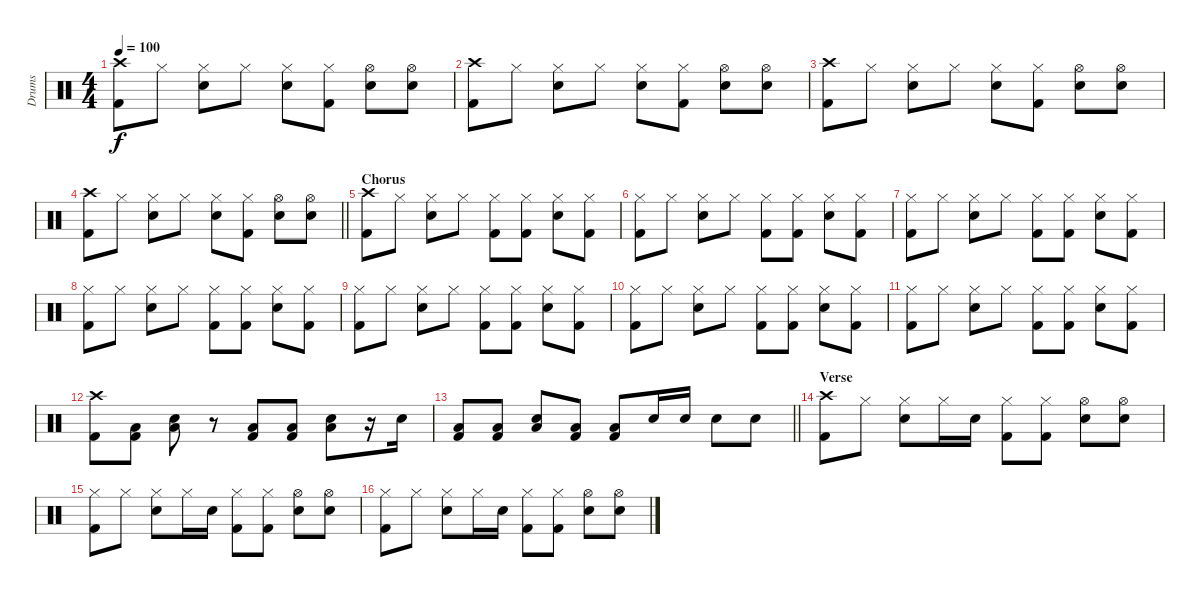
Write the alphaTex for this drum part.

\track ("Drums" "Drums") {instrument percussion}
\staff {score}
\articulation defaults
\ts (4 4)
\tempo 100
\clef neutral
\ks c
("Crash high (hit)" "Kick (hit) 2").8{dy f} "Hi-Hat (closed)".8 ("Hi-Hat (closed)" "Electric Snare (hit)").8 "Hi-Hat (closed)".8 ("Hi-Hat (closed)" "Electric Snare (hit)").8 ("Hi-Hat (closed)" "Kick (hit) 2").8 ("Hi-Hat (open)" "Electric Snare (hit)").8 ("Hi-Hat (open)" "Electric Snare (hit)").8 |
("Crash high (hit)" "Kick (hit) 2").8 "Hi-Hat (closed)".8 ("Hi-Hat (closed)" "Electric Snare (hit)").8 "Hi-Hat (closed)".8 ("Hi-Hat (closed)" "Electric Snare (hit)").8 ("Hi-Hat (closed)" "Kick (hit) 2").8 ("Hi-Hat (open)" "Electric Snare (hit)").8 ("Hi-Hat (open)" "Electric Snare (hit)").8 |
("Crash high (hit)" "Kick (hit) 2").8 "Hi-Hat (closed)".8 ("Hi-Hat (closed)" "Electric Snare (hit)").8 "Hi-Hat (closed)".8 ("Hi-Hat (closed)" "Electric Snare (hit)").8 ("Hi-Hat (closed)" "Kick (hit) 2").8 ("Hi-Hat (open)" "Electric Snare (hit)").8 ("Hi-Hat (open)" "Electric Snare (hit)").8 |
\barLineRight lightlight
("Crash high (hit)" "Kick (hit) 2").8 "Hi-Hat (closed)".8 ("Hi-Hat (closed)" "Electric Snare (hit)").8 "Hi-Hat (closed)".8 ("Hi-Hat (closed)" "Electric Snare (hit)").8 ("Hi-Hat (closed)" "Kick (hit) 2").8 ("Hi-Hat (open)" "Electric Snare (hit)").8 ("Hi-Hat (open)" "Electric Snare (hit)").8 |
\section ("" "Chorus")
("Crash high (hit)" "Kick (hit) 2").8 "Hi-Hat (closed)".8 ("Hi-Hat (closed)" "Electric Snare (hit)").8 "Hi-Hat (closed)".8 ("Hi-Hat (closed)" "Kick (hit) 2").8 ("Hi-Hat (closed)" "Kick (hit) 2").8 ("Hi-Hat (closed)" "Electric Snare (hit)").8 ("Hi-Hat (closed)" "Kick (hit) 2").8 |
("Hi-Hat (closed)" "Kick (hit) 2").8 "Hi-Hat (closed)".8 ("Hi-Hat (closed)" "Electric Snare (hit)").8 "Hi-Hat (closed)".8 ("Hi-Hat (closed)" "Kick (hit) 2").8 ("Hi-Hat (closed)" "Kick (hit) 2").8 ("Hi-Hat (closed)" "Electric Snare (hit)").8 ("Hi-Hat (closed)" "Kick (hit) 2").8 |
("Hi-Hat (closed)" "Kick (hit) 2").8 "Hi-Hat (closed)".8 ("Hi-Hat (closed)" "Electric Snare (hit)").8 "Hi-Hat (closed)".8 ("Hi-Hat (closed)" "Kick (hit) 2").8 ("Hi-Hat (closed)" "Kick (hit) 2").8 ("Hi-Hat (closed)" "Electric Snare (hit)").8 ("Hi-Hat (closed)" "Kick (hit) 2").8 |
("Hi-Hat (closed)" "Kick (hit) 2").8 "Hi-Hat (closed)".8 ("Hi-Hat (closed)" "Electric Snare (hit)").8 "Hi-Hat (closed)".8 ("Hi-Hat (closed)" "Kick (hit) 2").8 ("Hi-Hat (closed)" "Kick (hit) 2").8 ("Hi-Hat (closed)" "Electric Snare (hit)").8 ("Hi-Hat (closed)" "Kick (hit) 2").8 |
("Hi-Hat (closed)" "Kick (hit) 2").8 "Hi-Hat (closed)".8 ("Hi-Hat (closed)" "Electric Snare (hit)").8 "Hi-Hat (closed)".8 ("Hi-Hat (closed)" "Kick (hit) 2").8 ("Hi-Hat (closed)" "Kick (hit) 2").8 ("Hi-Hat (closed)" "Electric Snare (hit)").8 ("Hi-Hat (closed)" "Kick (hit) 2").8 |
("Hi-Hat (closed)" "Kick (hit) 2").8 "Hi-Hat (closed)".8 ("Hi-Hat (closed)" "Electric Snare (hit)").8 "Hi-Hat (closed)".8 ("Hi-Hat (closed)" "Kick (hit) 2").8 ("Hi-Hat (closed)" "Kick (hit) 2").8 ("Hi-Hat (closed)" "Electric Snare (hit)").8 ("Hi-Hat (closed)" "Kick (hit) 2").8 |
("Hi-Hat (closed)" "Kick (hit) 2").8 "Hi-Hat (closed)".8 ("Hi-Hat (closed)" "Electric Snare (hit)").8 "Hi-Hat (closed)".8 ("Hi-Hat (closed)" "Kick (hit) 2").8 ("Hi-Hat (closed)" "Kick (hit) 2").8 ("Hi-Hat (closed)" "Electric Snare (hit)").8 ("Hi-Hat (closed)" "Kick (hit) 2").8 |
("Crash high (hit)" "Kick (hit) 2").8 ("Low Floor Tom (hit)" "Kick (hit) 2").8 ("Electric Snare (hit)" "Low Floor Tom (hit)").8 r.8 ("Low Floor Tom (hit)" "Kick (hit) 2").8 ("Low Floor Tom (hit)" "Kick (hit) 2").8 ("Electric Snare (hit)" "Low Floor Tom (hit)").8 r.16 "Electric Snare (hit)".16 |
\barLineRight lightlight
("Low Floor Tom (hit)" "Kick (hit) 2").8 ("Low Floor Tom (hit)" "Kick (hit) 2").8 ("Electric Snare (hit)" "Low Floor Tom (hit)").8 ("Low Floor Tom (hit)" "Kick (hit) 2").8 ("Low Floor Tom (hit)" "Kick (hit) 2").8 "Electric Snare (hit)".16 "Electric Snare (hit)".16 "Electric Snare (hit)".8 "Electric Snare (hit)".8 |
\section ("" "Verse")
("Crash high (hit)" "Kick (hit) 2").8 "Hi-Hat (closed)".8 ("Hi-Hat (closed)" "Electric Snare (hit)").8 "Hi-Hat (closed)".16 "Electric Snare (hit)".16 ("Hi-Hat (closed)" "Kick (hit) 2").8 ("Hi-Hat (closed)" "Kick (hit) 2").8 ("Hi-Hat (open)" "Electric Snare (hit)").8 ("Hi-Hat (open)" "Electric Snare (hit)").8 |
("Hi-Hat (closed)" "Kick (hit) 2").8 "Hi-Hat (closed)".8 ("Hi-Hat (closed)" "Electric Snare (hit)").8 "Hi-Hat (closed)".16 "Electric Snare (hit)".16 ("Hi-Hat (closed)" "Kick (hit) 2").8 ("Hi-Hat (closed)" "Kick (hit) 2").8 ("Hi-Hat (open)" "Electric Snare (hit)").8 ("Hi-Hat (open)" "Electric Snare (hit)").8 |
("Hi-Hat (closed)" "Kick (hit) 2").8 "Hi-Hat (closed)".8 ("Hi-Hat (closed)" "Electric Snare (hit)").8 "Hi-Hat (closed)".16 "Electric Snare (hit)".16 ("Hi-Hat (closed)" "Kick (hit) 2").8 ("Hi-Hat (closed)" "Kick (hit) 2").8 ("Hi-Hat (open)" "Electric Snare (hit)").8 ("Hi-Hat (open)" "Electric Snare (hit)").8
